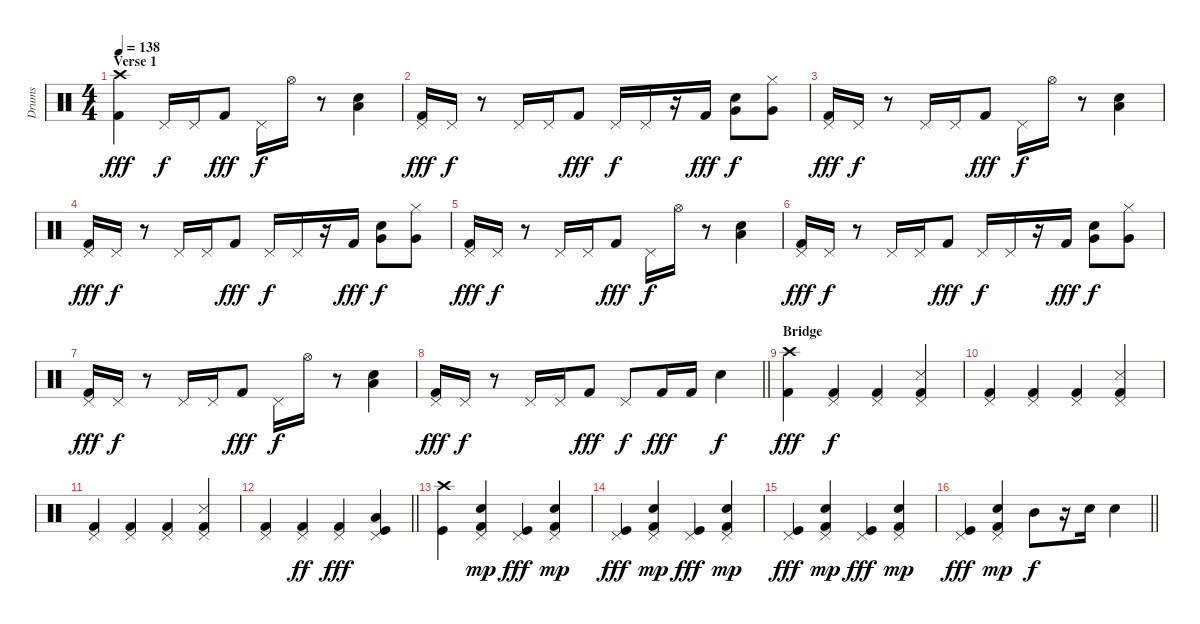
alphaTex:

\track ("Drums" "Drums") {instrument percussion}
\staff {score}
\articulation defaults
\ts (4 4)
\section ("" "Verse 1")
\tempo 138
\clef neutral
\ks c
("Crash high (hit)" "Kick (hit) 2").4{dy fff} "Pedal Hi-Hat (hit)".16{dy f} "Pedal Hi-Hat (hit)".16 "Kick (hit) 2".8{dy fff} "Pedal Hi-Hat (hit)".16{dy f} "Hi-Hat (open)".16 r.8 ("Electric Snare (hit)" "Low Tom (hit)").4 |
("Pedal Hi-Hat (hit)" "Kick (hit) 2").16{dy fff} "Pedal Hi-Hat (hit)".16{dy f} r.8 "Pedal Hi-Hat (hit)".16 "Pedal Hi-Hat (hit)".16 "Kick (hit) 2".8{dy fff} "Pedal Hi-Hat (hit)".16{dy f} "Pedal Hi-Hat (hit)".16 r.16 "Kick (hit) 2".16{dy fff} ("Electric Snare (hit)" "Very Low Tom (hit)").8{dy f} ("Hi-Hat (closed)" "Very Low Tom (hit)").8 |
("Pedal Hi-Hat (hit)" "Kick (hit) 2").16{dy fff} "Pedal Hi-Hat (hit)".16{dy f} r.8 "Pedal Hi-Hat (hit)".16 "Pedal Hi-Hat (hit)".16 "Kick (hit) 2".8{dy fff} "Pedal Hi-Hat (hit)".16{dy f} "Hi-Hat (open)".16 r.8 ("Electric Snare (hit)" "Low Tom (hit)").4 |
("Pedal Hi-Hat (hit)" "Kick (hit) 2").16{dy fff} "Pedal Hi-Hat (hit)".16{dy f} r.8 "Pedal Hi-Hat (hit)".16 "Pedal Hi-Hat (hit)".16 "Kick (hit) 2".8{dy fff} "Pedal Hi-Hat (hit)".16{dy f} "Pedal Hi-Hat (hit)".16 r.16 "Kick (hit) 2".16{dy fff} ("Electric Snare (hit)" "Very Low Tom (hit)").8{dy f} ("Hi-Hat (closed)" "Very Low Tom (hit)").8 |
("Pedal Hi-Hat (hit)" "Kick (hit) 2").16{dy fff} "Pedal Hi-Hat (hit)".16{dy f} r.8 "Pedal Hi-Hat (hit)".16 "Pedal Hi-Hat (hit)".16 "Kick (hit) 2".8{dy fff} "Pedal Hi-Hat (hit)".16{dy f} "Hi-Hat (open)".16 r.8 ("Electric Snare (hit)" "Low Tom (hit)").4 |
("Pedal Hi-Hat (hit)" "Kick (hit) 2").16{dy fff} "Pedal Hi-Hat (hit)".16{dy f} r.8 "Pedal Hi-Hat (hit)".16 "Pedal Hi-Hat (hit)".16 "Kick (hit) 2".8{dy fff} "Pedal Hi-Hat (hit)".16{dy f} "Pedal Hi-Hat (hit)".16 r.16 "Kick (hit) 2".16{dy fff} ("Electric Snare (hit)" "Very Low Tom (hit)").8{dy f} ("Hi-Hat (closed)" "Very Low Tom (hit)").8 |
("Pedal Hi-Hat (hit)" "Kick (hit) 2").16{dy fff} "Pedal Hi-Hat (hit)".16{dy f} r.8 "Pedal Hi-Hat (hit)".16 "Pedal Hi-Hat (hit)".16 "Kick (hit) 2".8{dy fff} "Pedal Hi-Hat (hit)".16{dy f} "Hi-Hat (open)".16 r.8 ("Electric Snare (hit)" "Low Tom (hit)").4 |
\barLineRight lightlight
("Pedal Hi-Hat (hit)" "Kick (hit) 2").16{dy fff} "Pedal Hi-Hat (hit)".16{dy f} r.8 "Pedal Hi-Hat (hit)".16 "Pedal Hi-Hat (hit)".16 "Kick (hit) 2".8{dy fff} "Pedal Hi-Hat (hit)".8{dy f} "Kick (hit) 2".16{dy fff} "Kick (hit) 2".16 "Electric Snare (hit)".4{dy f} |
\section ("" "Bridge")
("Crash high (hit)" "Kick (hit) 2").4{dy fff} ("Pedal Hi-Hat (hit)" "Kick (hit) 2").4{dy f} ("Pedal Hi-Hat (hit)" "Kick (hit) 2").4 ("Pedal Hi-Hat (hit)" "Metronome (hit)" "Kick (hit) 2").4 |
("Pedal Hi-Hat (hit)" "Kick (hit) 2").4 ("Pedal Hi-Hat (hit)" "Kick (hit) 2").4 ("Pedal Hi-Hat (hit)" "Kick (hit) 2").4 ("Pedal Hi-Hat (hit)" "Metronome (hit)" "Kick (hit) 2").4 |
("Pedal Hi-Hat (hit)" "Kick (hit) 2").4 ("Pedal Hi-Hat (hit)" "Kick (hit) 2").4 ("Pedal Hi-Hat (hit)" "Kick (hit) 2").4 ("Pedal Hi-Hat (hit)" "Metronome (hit)" "Kick (hit) 2").4 |
\barLineRight lightlight
("Pedal Hi-Hat (hit)" "Kick (hit) 2").4 ("Pedal Hi-Hat (hit)" "Kick (hit) 2").4{dy ff} ("Pedal Hi-Hat (hit)" "Kick (hit) 2").4{dy fff} ("Pedal Hi-Hat (hit)" "Low Floor Tom (hit)" "Kick (hit)").4 |
("Crash high (hit)" "Kick (hit)").4 ("Pedal Hi-Hat (hit)" "Electric Snare (hit)" "Kick (hit) 2").4{dy mp} ("Pedal Hi-Hat (hit)" "Kick (hit)").4{dy fff} ("Pedal Hi-Hat (hit)" "Electric Snare (hit)" "Kick (hit) 2").4{dy mp} |
("Pedal Hi-Hat (hit)" "Kick (hit)").4{dy fff} ("Pedal Hi-Hat (hit)" "Electric Snare (hit)" "Kick (hit) 2").4{dy mp} ("Pedal Hi-Hat (hit)" "Kick (hit)").4{dy fff} ("Pedal Hi-Hat (hit)" "Electric Snare (hit)" "Kick (hit) 2").4{dy mp} |
("Pedal Hi-Hat (hit)" "Kick (hit)").4{dy fff} ("Pedal Hi-Hat (hit)" "Electric Snare (hit)" "Kick (hit) 2").4{dy mp} ("Pedal Hi-Hat (hit)" "Kick (hit)").4{dy fff} ("Pedal Hi-Hat (hit)" "Electric Snare (hit)" "Kick (hit) 2").4{dy mp} |
\barLineRight lightlight
("Pedal Hi-Hat (hit)" "Kick (hit)").4{dy fff} ("Pedal Hi-Hat (hit)" "Electric Snare (hit)" "Kick (hit) 2").4{dy mp} "Mid Tom (hit)".8{dy f} r.16 "Electric Snare (hit)".16 "Electric Snare (hit)".4
